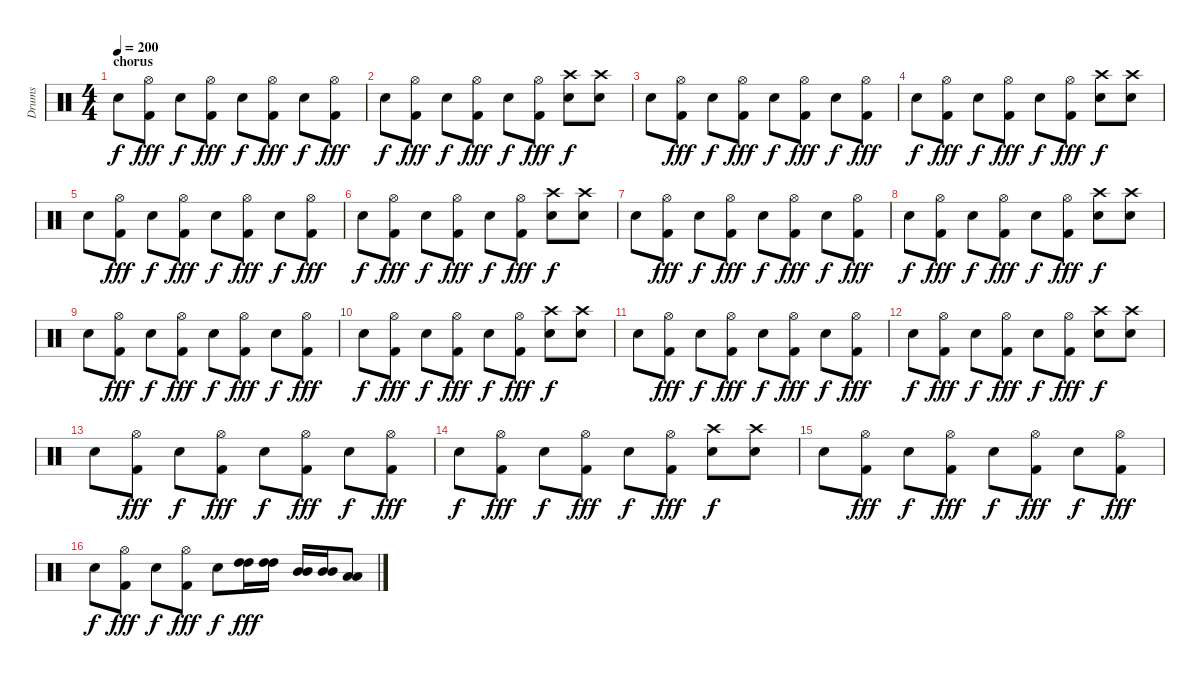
\track ("Drums" "Drums") {instrument percussion}
\staff {score}
\articulation defaults
\ts (4 4)
\section ("" "chorus")
\tempo 200
\clef neutral
\ks c "Electric Snare (hit)".8{dy f}
("Hi-Hat (open)" "Kick (hit) 2").8{dy fff} "Electric Snare (hit)".8{dy f} ("Hi-Hat (open)" "Kick (hit) 2").8{dy fff} "Electric Snare (hit)".8{dy f} ("Hi-Hat (open)" "Kick (hit) 2").8{dy fff} "Electric Snare (hit)".8{dy f} ("Hi-Hat (open)" "Kick (hit) 2").8{dy fff} |
"Electric Snare (hit)".8{dy f} ("Hi-Hat (open)" "Kick (hit) 2").8{dy fff} "Electric Snare (hit)".8{dy f} ("Hi-Hat (open)" "Kick (hit) 2").8{dy fff} "Electric Snare (hit)".8{dy f} ("Hi-Hat (open)" "Kick (hit) 2").8{dy fff} ("Crash high (hit)" "Electric Snare (hit)").8{dy f} ("Crash high (hit)" "Electric Snare (hit)").8 |
"Electric Snare (hit)".8 ("Hi-Hat (open)" "Kick (hit) 2").8{dy fff} "Electric Snare (hit)".8{dy f} ("Hi-Hat (open)" "Kick (hit) 2").8{dy fff} "Electric Snare (hit)".8{dy f} ("Hi-Hat (open)" "Kick (hit) 2").8{dy fff} "Electric Snare (hit)".8{dy f} ("Hi-Hat (open)" "Kick (hit) 2").8{dy fff} |
"Electric Snare (hit)".8{dy f} ("Hi-Hat (open)" "Kick (hit) 2").8{dy fff} "Electric Snare (hit)".8{dy f} ("Hi-Hat (open)" "Kick (hit) 2").8{dy fff} "Electric Snare (hit)".8{dy f} ("Hi-Hat (open)" "Kick (hit) 2").8{dy fff} ("Crash high (hit)" "Electric Snare (hit)").8{dy f} ("Crash high (hit)" "Electric Snare (hit)").8 |
"Electric Snare (hit)".8 ("Hi-Hat (open)" "Kick (hit) 2").8{dy fff} "Electric Snare (hit)".8{dy f} ("Hi-Hat (open)" "Kick (hit) 2").8{dy fff} "Electric Snare (hit)".8{dy f} ("Hi-Hat (open)" "Kick (hit) 2").8{dy fff} "Electric Snare (hit)".8{dy f} ("Hi-Hat (open)" "Kick (hit) 2").8{dy fff} |
"Electric Snare (hit)".8{dy f} ("Hi-Hat (open)" "Kick (hit) 2").8{dy fff} "Electric Snare (hit)".8{dy f} ("Hi-Hat (open)" "Kick (hit) 2").8{dy fff} "Electric Snare (hit)".8{dy f} ("Hi-Hat (open)" "Kick (hit) 2").8{dy fff} ("Crash high (hit)" "Electric Snare (hit)").8{dy f} ("Crash high (hit)" "Electric Snare (hit)").8 |
"Electric Snare (hit)".8 ("Hi-Hat (open)" "Kick (hit) 2").8{dy fff} "Electric Snare (hit)".8{dy f} ("Hi-Hat (open)" "Kick (hit) 2").8{dy fff} "Electric Snare (hit)".8{dy f} ("Hi-Hat (open)" "Kick (hit) 2").8{dy fff} "Electric Snare (hit)".8{dy f} ("Hi-Hat (open)" "Kick (hit) 2").8{dy fff} |
"Electric Snare (hit)".8{dy f} ("Hi-Hat (open)" "Kick (hit) 2").8{dy fff} "Electric Snare (hit)".8{dy f} ("Hi-Hat (open)" "Kick (hit) 2").8{dy fff} "Electric Snare (hit)".8{dy f} ("Hi-Hat (open)" "Kick (hit) 2").8{dy fff} ("Crash high (hit)" "Electric Snare (hit)").8{dy f} ("Crash high (hit)" "Electric Snare (hit)").8 |
"Electric Snare (hit)".8 ("Hi-Hat (open)" "Kick (hit) 2").8{dy fff} "Electric Snare (hit)".8{dy f} ("Hi-Hat (open)" "Kick (hit) 2").8{dy fff} "Electric Snare (hit)".8{dy f} ("Hi-Hat (open)" "Kick (hit) 2").8{dy fff} "Electric Snare (hit)".8{dy f} ("Hi-Hat (open)" "Kick (hit) 2").8{dy fff} |
"Electric Snare (hit)".8{dy f} ("Hi-Hat (open)" "Kick (hit) 2").8{dy fff} "Electric Snare (hit)".8{dy f} ("Hi-Hat (open)" "Kick (hit) 2").8{dy fff} "Electric Snare (hit)".8{dy f} ("Hi-Hat (open)" "Kick (hit) 2").8{dy fff} ("Crash high (hit)" "Electric Snare (hit)").8{dy f} ("Crash high (hit)" "Electric Snare (hit)").8 |
"Electric Snare (hit)".8 ("Hi-Hat (open)" "Kick (hit) 2").8{dy fff} "Electric Snare (hit)".8{dy f} ("Hi-Hat (open)" "Kick (hit) 2").8{dy fff} "Electric Snare (hit)".8{dy f} ("Hi-Hat (open)" "Kick (hit) 2").8{dy fff} "Electric Snare (hit)".8{dy f} ("Hi-Hat (open)" "Kick (hit) 2").8{dy fff} |
"Electric Snare (hit)".8{dy f} ("Hi-Hat (open)" "Kick (hit) 2").8{dy fff} "Electric Snare (hit)".8{dy f} ("Hi-Hat (open)" "Kick (hit) 2").8{dy fff} "Electric Snare (hit)".8{dy f} ("Hi-Hat (open)" "Kick (hit) 2").8{dy fff} ("Crash high (hit)" "Electric Snare (hit)").8{dy f} ("Crash high (hit)" "Electric Snare (hit)").8 |
"Electric Snare (hit)".8 ("Hi-Hat (open)" "Kick (hit) 2").8{dy fff} "Electric Snare (hit)".8{dy f} ("Hi-Hat (open)" "Kick (hit) 2").8{dy fff} "Electric Snare (hit)".8{dy f} ("Hi-Hat (open)" "Kick (hit) 2").8{dy fff} "Electric Snare (hit)".8{dy f} ("Hi-Hat (open)" "Kick (hit) 2").8{dy fff} |
"Electric Snare (hit)".8{dy f} ("Hi-Hat (open)" "Kick (hit) 2").8{dy fff} "Electric Snare (hit)".8{dy f} ("Hi-Hat (open)" "Kick (hit) 2").8{dy fff} "Electric Snare (hit)".8{dy f} ("Hi-Hat (open)" "Kick (hit) 2").8{dy fff} ("Crash high (hit)" "Electric Snare (hit)").8{dy f} ("Crash high (hit)" "Electric Snare (hit)").8 |
"Electric Snare (hit)".8 ("Hi-Hat (open)" "Kick (hit) 2").8{dy fff} "Electric Snare (hit)".8{dy f} ("Hi-Hat (open)" "Kick (hit) 2").8{dy fff} "Electric Snare (hit)".8{dy f} ("Hi-Hat (open)" "Kick (hit) 2").8{dy fff} "Electric Snare (hit)".8{dy f} ("Hi-Hat (open)" "Kick (hit) 2").8{dy fff} |
"Electric Snare (hit)".8{dy f} ("Hi-Hat (open)" "Kick (hit) 2").8{dy fff} "Electric Snare (hit)".8{dy f} ("Hi-Hat (open)" "Kick (hit) 2").8{dy fff} "Electric Snare (hit)".8{dy f} ("High Tom (hit)" "High Tom (hit)").16{dy fff} ("High Tom (hit)" "High Tom (hit)").16 ("Mid Tom (hit)" "Mid Tom (hit)").16 ("Mid Tom (hit)" "Mid Tom (hit)").16 ("Low Tom (hit)" "Low Tom (hit)").8
